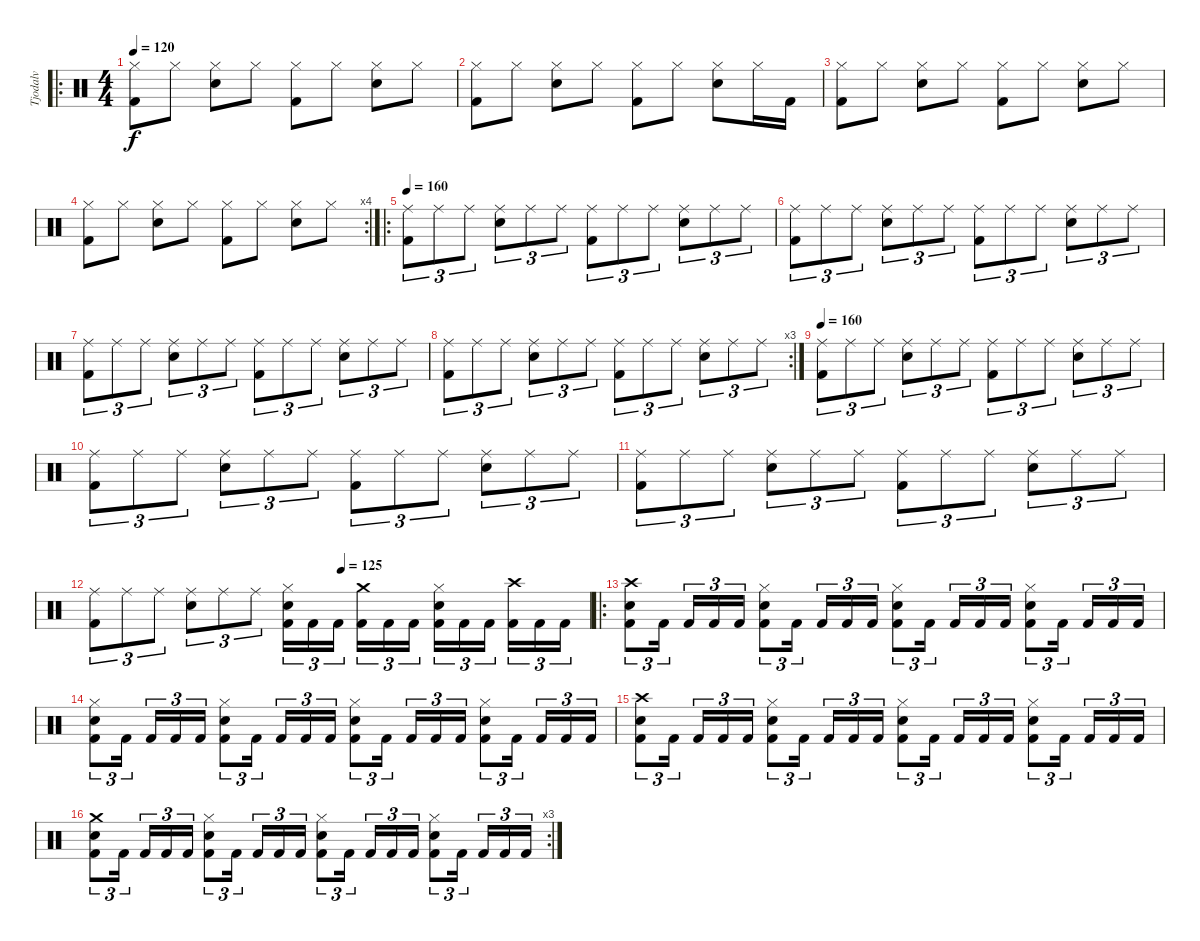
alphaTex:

\track ("Tjodalv" "Tjodalv") {instrument percussion}
\staff {score}
\articulation defaults
\ro
\ts (4 4)
\tempo 120
\clef neutral
\ks c
("Hi-Hat (closed)" "Kick (hit) 2").8{dy f} "Hi-Hat (closed)".8 ("Hi-Hat (closed)" "Snare (hit) 2").8 "Hi-Hat (closed)".8 ("Hi-Hat (closed)" "Kick (hit) 2").8 "Hi-Hat (closed)".8 ("Hi-Hat (closed)" "Snare (hit) 2").8 "Hi-Hat (closed)".8 |
("Hi-Hat (closed)" "Kick (hit) 2").8 "Hi-Hat (closed)".8 ("Hi-Hat (closed)" "Snare (hit) 2").8 "Hi-Hat (closed)".8 ("Hi-Hat (closed)" "Kick (hit) 2").8 "Hi-Hat (closed)".8 ("Hi-Hat (closed)" "Snare (hit) 2").8 "Hi-Hat (closed)".16 "Kick (hit) 2".16 |
("Hi-Hat (closed)" "Kick (hit) 2").8 "Hi-Hat (closed)".8 ("Hi-Hat (closed)" "Snare (hit) 2").8 "Hi-Hat (closed)".8 ("Hi-Hat (closed)" "Kick (hit) 2").8 "Hi-Hat (closed)".8 ("Hi-Hat (closed)" "Snare (hit) 2").8 "Hi-Hat (closed)".8 |
\rc 4
("Hi-Hat (closed)" "Kick (hit) 2").8 "Hi-Hat (closed)".8 ("Hi-Hat (closed)" "Snare (hit) 2").8 "Hi-Hat (closed)".8 ("Hi-Hat (closed)" "Kick (hit) 2").8 "Hi-Hat (closed)".8 ("Hi-Hat (closed)" "Snare (hit) 2").8 "Hi-Hat (closed)".8 |
\ro
\tempo 160
("Ride (middle)" "Kick (hit) 2").8{tu (3 2)} "Ride (middle)".8{tu (3 2)} "Ride (middle)".8{tu (3 2)} ("Ride (middle)" "Snare (hit) 2").8{tu (3 2)} "Ride (middle)".8{tu (3 2)} "Ride (middle)".8{tu (3 2)} ("Kick (hit) 2" "Ride (middle)").8{tu (3 2)} "Ride (middle)".8{tu (3 2)} "Ride (middle)".8{tu (3 2)} ("Ride (middle)" "Snare (hit) 2").8{tu (3 2)} "Ride (middle)".8{tu (3 2)} "Ride (middle)".8{tu (3 2)} |
("Ride (middle)" "Kick (hit) 2").8{tu (3 2)} "Ride (middle)".8{tu (3 2)} "Ride (middle)".8{tu (3 2)} ("Ride (middle)" "Snare (hit) 2").8{tu (3 2)} "Ride (middle)".8{tu (3 2)} "Ride (middle)".8{tu (3 2)} ("Kick (hit) 2" "Ride (middle)").8{tu (3 2)} "Ride (middle)".8{tu (3 2)} "Ride (middle)".8{tu (3 2)} ("Ride (middle)" "Snare (hit) 2").8{tu (3 2)} "Ride (middle)".8{tu (3 2)} "Ride (middle)".8{tu (3 2)} |
("Ride (middle)" "Kick (hit) 2").8{tu (3 2)} "Ride (middle)".8{tu (3 2)} "Ride (middle)".8{tu (3 2)} ("Ride (middle)" "Snare (hit) 2").8{tu (3 2)} "Ride (middle)".8{tu (3 2)} "Ride (middle)".8{tu (3 2)} ("Kick (hit) 2" "Ride (middle)").8{tu (3 2)} "Ride (middle)".8{tu (3 2)} "Ride (middle)".8{tu (3 2)} ("Ride (middle)" "Snare (hit) 2").8{tu (3 2)} "Ride (middle)".8{tu (3 2)} "Ride (middle)".8{tu (3 2)} |
\rc 3
("Ride (middle)" "Kick (hit) 2").8{tu (3 2)} "Ride (middle)".8{tu (3 2)} "Ride (middle)".8{tu (3 2)} ("Ride (middle)" "Snare (hit) 2").8{tu (3 2)} "Ride (middle)".8{tu (3 2)} "Ride (middle)".8{tu (3 2)} ("Kick (hit) 2" "Ride (middle)").8{tu (3 2)} "Ride (middle)".8{tu (3 2)} "Ride (middle)".8{tu (3 2)} ("Ride (middle)" "Snare (hit) 2").8{tu (3 2)} "Ride (middle)".8{tu (3 2)} "Ride (middle)".8{tu (3 2)} |
\tempo 160
("Ride (middle)" "Kick (hit) 2").8{tu (3 2)} "Ride (middle)".8{tu (3 2)} "Ride (middle)".8{tu (3 2)} ("Ride (middle)" "Snare (hit) 2").8{tu (3 2)} "Ride (middle)".8{tu (3 2)} "Ride (middle)".8{tu (3 2)} ("Kick (hit) 2" "Ride (middle)").8{tu (3 2)} "Ride (middle)".8{tu (3 2)} "Ride (middle)".8{tu (3 2)} ("Ride (middle)" "Snare (hit) 2").8{tu (3 2)} "Ride (middle)".8{tu (3 2)} "Ride (middle)".8{tu (3 2)} |
("Ride (middle)" "Kick (hit) 2").8{tu (3 2)} "Ride (middle)".8{tu (3 2)} "Ride (middle)".8{tu (3 2)} ("Ride (middle)" "Snare (hit) 2").8{tu (3 2)} "Ride (middle)".8{tu (3 2)} "Ride (middle)".8{tu (3 2)} ("Kick (hit) 2" "Ride (middle)").8{tu (3 2)} "Ride (middle)".8{tu (3 2)} "Ride (middle)".8{tu (3 2)} ("Ride (middle)" "Snare (hit) 2").8{tu (3 2)} "Ride (middle)".8{tu (3 2)} "Ride (middle)".8{tu (3 2)} |
("Ride (middle)" "Kick (hit) 2").8{tu (3 2)} "Ride (middle)".8{tu (3 2)} "Ride (middle)".8{tu (3 2)} ("Ride (middle)" "Snare (hit) 2").8{tu (3 2)} "Ride (middle)".8{tu (3 2)} "Ride (middle)".8{tu (3 2)} ("Kick (hit) 2" "Ride (middle)").8{tu (3 2)} "Ride (middle)".8{tu (3 2)} "Ride (middle)".8{tu (3 2)} ("Ride (middle)" "Snare (hit) 2").8{tu (3 2)} "Ride (middle)".8{tu (3 2)} "Ride (middle)".8{tu (3 2)} |
\tempo (125 0.5)
("Ride (middle)" "Kick (hit) 2").8{tu (3 2)} "Ride (middle)".8{tu (3 2)} "Ride (middle)".8{tu (3 2)} ("Ride (middle)" "Snare (hit) 2").8{tu (3 2)} "Ride (middle)".8{tu (3 2)} "Ride (middle)".8{tu (3 2)} ("Kick (hit) 2" "Hi-Hat (closed)" "Snare (hit) 2").16{tu (3 2)} "Kick (hit) 2".16{tu (3 2)} "Kick (hit) 2".16{tu (3 2)} ("Kick (hit) 2" "Crash medium (hit)").16{tu (3 2)} "Kick (hit) 2".16{tu (3 2)} "Kick (hit) 2".16{tu (3 2)} ("Kick (hit) 2" "Hi-Hat (closed)" "Snare (hit) 2").16{tu (3 2)} "Kick (hit) 2".16{tu (3 2)} "Kick (hit) 2".16{tu (3 2)} ("Kick (hit) 2" "Crash high (hit)").16{tu (3 2)} "Kick (hit) 2".16{tu (3 2)} "Kick (hit) 2".16{tu (3 2)} |
\ro
("Snare (hit) 2" "Kick (hit) 2" "Crash high (hit)").8{tu (3 2)} "Kick (hit) 2".16{tu (3 2)} "Kick (hit) 2".16{tu (3 2)} "Kick (hit) 2".16{tu (3 2)} "Kick (hit) 2".16{tu (3 2)} ("Snare (hit) 2" "Kick (hit) 2" "Hi-Hat (closed)").8{tu (3 2)} "Kick (hit) 2".16{tu (3 2)} "Kick (hit) 2".16{tu (3 2)} "Kick (hit) 2".16{tu (3 2)} "Kick (hit) 2".16{tu (3 2)} ("Snare (hit) 2" "Kick (hit) 2" "Hi-Hat (closed)").8{tu (3 2)} "Kick (hit) 2".16{tu (3 2)} "Kick (hit) 2".16{tu (3 2)} "Kick (hit) 2".16{tu (3 2)} "Kick (hit) 2".16{tu (3 2)} ("Snare (hit) 2" "Kick (hit) 2" "Hi-Hat (closed)").8{tu (3 2)} "Kick (hit) 2".16{tu (3 2)} "Kick (hit) 2".16{tu (3 2)} "Kick (hit) 2".16{tu (3 2)} "Kick (hit) 2".16{tu (3 2)} |
("Snare (hit) 2" "Kick (hit) 2" "Hi-Hat (closed)").8{tu (3 2)} "Kick (hit) 2".16{tu (3 2)} "Kick (hit) 2".16{tu (3 2)} "Kick (hit) 2".16{tu (3 2)} "Kick (hit) 2".16{tu (3 2)} ("Snare (hit) 2" "Kick (hit) 2" "Hi-Hat (closed)").8{tu (3 2)} "Kick (hit) 2".16{tu (3 2)} "Kick (hit) 2".16{tu (3 2)} "Kick (hit) 2".16{tu (3 2)} "Kick (hit) 2".16{tu (3 2)} ("Snare (hit) 2" "Kick (hit) 2" "Hi-Hat (closed)").8{tu (3 2)} "Kick (hit) 2".16{tu (3 2)} "Kick (hit) 2".16{tu (3 2)} "Kick (hit) 2".16{tu (3 2)} "Kick (hit) 2".16{tu (3 2)} ("Snare (hit) 2" "Kick (hit) 2" "Hi-Hat (closed)").8{tu (3 2)} "Kick (hit) 2".16{tu (3 2)} "Kick (hit) 2".16{tu (3 2)} "Kick (hit) 2".16{tu (3 2)} "Kick (hit) 2".16{tu (3 2)} |
("Snare (hit) 2" "Kick (hit) 2" "Crash high (hit)").8{tu (3 2)} "Kick (hit) 2".16{tu (3 2)} "Kick (hit) 2".16{tu (3 2)} "Kick (hit) 2".16{tu (3 2)} "Kick (hit) 2".16{tu (3 2)} ("Snare (hit) 2" "Kick (hit) 2" "Hi-Hat (closed)").8{tu (3 2)} "Kick (hit) 2".16{tu (3 2)} "Kick (hit) 2".16{tu (3 2)} "Kick (hit) 2".16{tu (3 2)} "Kick (hit) 2".16{tu (3 2)} ("Snare (hit) 2" "Kick (hit) 2" "Hi-Hat (closed)").8{tu (3 2)} "Kick (hit) 2".16{tu (3 2)} "Kick (hit) 2".16{tu (3 2)} "Kick (hit) 2".16{tu (3 2)} "Kick (hit) 2".16{tu (3 2)} ("Snare (hit) 2" "Kick (hit) 2" "Hi-Hat (closed)").8{tu (3 2)} "Kick (hit) 2".16{tu (3 2)} "Kick (hit) 2".16{tu (3 2)} "Kick (hit) 2".16{tu (3 2)} "Kick (hit) 2".16{tu (3 2)} |
\rc 3
("Snare (hit) 2" "Kick (hit) 2" "Crash medium (hit)").8{tu (3 2)} "Kick (hit) 2".16{tu (3 2)} "Kick (hit) 2".16{tu (3 2)} "Kick (hit) 2".16{tu (3 2)} "Kick (hit) 2".16{tu (3 2)} ("Snare (hit) 2" "Kick (hit) 2" "Hi-Hat (closed)").8{tu (3 2)} "Kick (hit) 2".16{tu (3 2)} "Kick (hit) 2".16{tu (3 2)} "Kick (hit) 2".16{tu (3 2)} "Kick (hit) 2".16{tu (3 2)} ("Snare (hit) 2" "Kick (hit) 2" "Hi-Hat (closed)").8{tu (3 2)} "Kick (hit) 2".16{tu (3 2)} "Kick (hit) 2".16{tu (3 2)} "Kick (hit) 2".16{tu (3 2)} "Kick (hit) 2".16{tu (3 2)} ("Snare (hit) 2" "Kick (hit) 2" "Hi-Hat (closed)").8{tu (3 2)} "Kick (hit) 2".16{tu (3 2)} "Kick (hit) 2".16{tu (3 2)} "Kick (hit) 2".16{tu (3 2)} "Kick (hit) 2".16{tu (3 2)}
